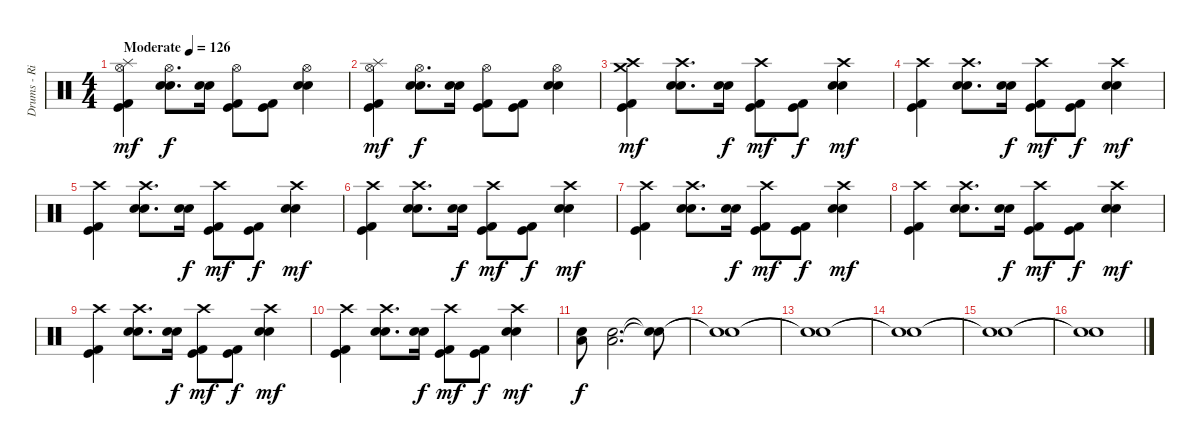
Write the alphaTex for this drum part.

\track ("Drums - Rian" "Drums - Ri") {instrument percussion}
\staff {score}
\articulation defaults
\ts (4 4)
\tempo (126 "Moderate")
\clef neutral
\ks c
("Kick (hit) 2" "Kick (hit)" "Hi-Hat (open)" "Splash (hit)").4{dy mf} ("Electric Snare (hit)" "Electric Snare (hit)" "Hi-Hat (open)").8{d dy f} ("Electric Snare (hit)" "Electric Snare (hit)").16 ("Kick (hit) 2" "Kick (hit)" "Hi-Hat (open)").8 ("Kick (hit) 2" "Kick (hit)").8 ("Electric Snare (hit)" "Electric Snare (hit)" "Hi-Hat (open)").4 |
("Kick (hit) 2" "Kick (hit)" "Hi-Hat (open)" "Splash (hit)").4{dy mf} ("Electric Snare (hit)" "Electric Snare (hit)" "Hi-Hat (open)").8{d dy f} ("Electric Snare (hit)" "Electric Snare (hit)").16 ("Kick (hit) 2" "Kick (hit)" "Hi-Hat (open)").8 ("Kick (hit) 2" "Kick (hit)").8 ("Electric Snare (hit)" "Electric Snare (hit)" "Hi-Hat (open)").4 |
("Kick (hit) 2" "Kick (hit)" "Crash high (hit)" "Crash medium (hit)").4{dy mf} ("Electric Snare (hit)" "Electric Snare (hit)" "Crash high (hit)").8{d} ("Electric Snare (hit)" "Electric Snare (hit)").16{dy f} ("Kick (hit) 2" "Kick (hit)" "Crash high (hit)").8{dy mf} ("Kick (hit) 2" "Kick (hit)").8{dy f} ("Electric Snare (hit)" "Electric Snare (hit)" "Crash high (hit)").4{dy mf} |
("Kick (hit) 2" "Kick (hit)" "Crash high (hit)").4 ("Electric Snare (hit)" "Electric Snare (hit)" "Crash high (hit)").8{d} ("Electric Snare (hit)" "Electric Snare (hit)").16{dy f} ("Kick (hit) 2" "Kick (hit)" "Crash high (hit)").8{dy mf} ("Kick (hit) 2" "Kick (hit)").8{dy f} ("Electric Snare (hit)" "Electric Snare (hit)" "Crash high (hit)").4{dy mf} |
("Kick (hit) 2" "Kick (hit)" "Crash high (hit)").4 ("Electric Snare (hit)" "Electric Snare (hit)" "Crash high (hit)").8{d} ("Electric Snare (hit)" "Electric Snare (hit)").16{dy f} ("Kick (hit) 2" "Kick (hit)" "Crash high (hit)").8{dy mf} ("Kick (hit) 2" "Kick (hit)").8{dy f} ("Electric Snare (hit)" "Electric Snare (hit)" "Crash high (hit)").4{dy mf} |
("Kick (hit) 2" "Kick (hit)" "Crash high (hit)").4 ("Electric Snare (hit)" "Electric Snare (hit)" "Crash high (hit)").8{d} ("Electric Snare (hit)" "Electric Snare (hit)").16{dy f} ("Kick (hit) 2" "Kick (hit)" "Crash high (hit)").8{dy mf} ("Kick (hit) 2" "Kick (hit)").8{dy f} ("Electric Snare (hit)" "Electric Snare (hit)" "Crash high (hit)").4{dy mf} |
("Kick (hit) 2" "Kick (hit)" "Crash high (hit)").4 ("Electric Snare (hit)" "Electric Snare (hit)" "Crash high (hit)").8{d} ("Electric Snare (hit)" "Electric Snare (hit)").16{dy f} ("Kick (hit) 2" "Kick (hit)" "Crash high (hit)").8{dy mf} ("Kick (hit) 2" "Kick (hit)").8{dy f} ("Electric Snare (hit)" "Electric Snare (hit)" "Crash high (hit)").4{dy mf} |
("Kick (hit) 2" "Kick (hit)" "Crash high (hit)").4 ("Electric Snare (hit)" "Electric Snare (hit)" "Crash high (hit)").8{d} ("Electric Snare (hit)" "Electric Snare (hit)").16{dy f} ("Kick (hit) 2" "Kick (hit)" "Crash high (hit)").8{dy mf} ("Kick (hit) 2" "Kick (hit)").8{dy f} ("Electric Snare (hit)" "Electric Snare (hit)" "Crash high (hit)").4{dy mf} |
("Kick (hit) 2" "Kick (hit)" "Crash high (hit)").4 ("Electric Snare (hit)" "Electric Snare (hit)" "Crash high (hit)").8{d} ("Electric Snare (hit)" "Electric Snare (hit)").16{dy f} ("Kick (hit) 2" "Kick (hit)" "Crash high (hit)").8{dy mf} ("Kick (hit) 2" "Kick (hit)").8{dy f} ("Electric Snare (hit)" "Electric Snare (hit)" "Crash high (hit)").4{dy mf} |
("Kick (hit) 2" "Kick (hit)" "Crash high (hit)").4 ("Electric Snare (hit)" "Electric Snare (hit)" "Crash high (hit)").8{d} ("Electric Snare (hit)" "Electric Snare (hit)").16{dy f} ("Kick (hit) 2" "Kick (hit)" "Crash high (hit)").8{dy mf} ("Kick (hit) 2" "Kick (hit)").8{dy f} ("Electric Snare (hit)" "Electric Snare (hit)" "Crash high (hit)").4{dy mf} |
("Electric Snare (hit)" "Low Floor Tom (hit)").8{dy f} ("Electric Snare (hit)" "Low Floor Tom (hit)").2{d} ("Snare (hit)"{t} "Snare (hit)"{t}).8 |
("Snare (hit)"{t} "Snare (hit)"{t}).1 |
("Snare (hit)"{t} "Snare (hit)"{t}).1 |
("Snare (hit)"{t} "Snare (hit)"{t}).1 |
("Snare (hit)"{t} "Snare (hit)"{t}).1 |
("Snare (hit)"{t} "Snare (hit)"{t}).1
